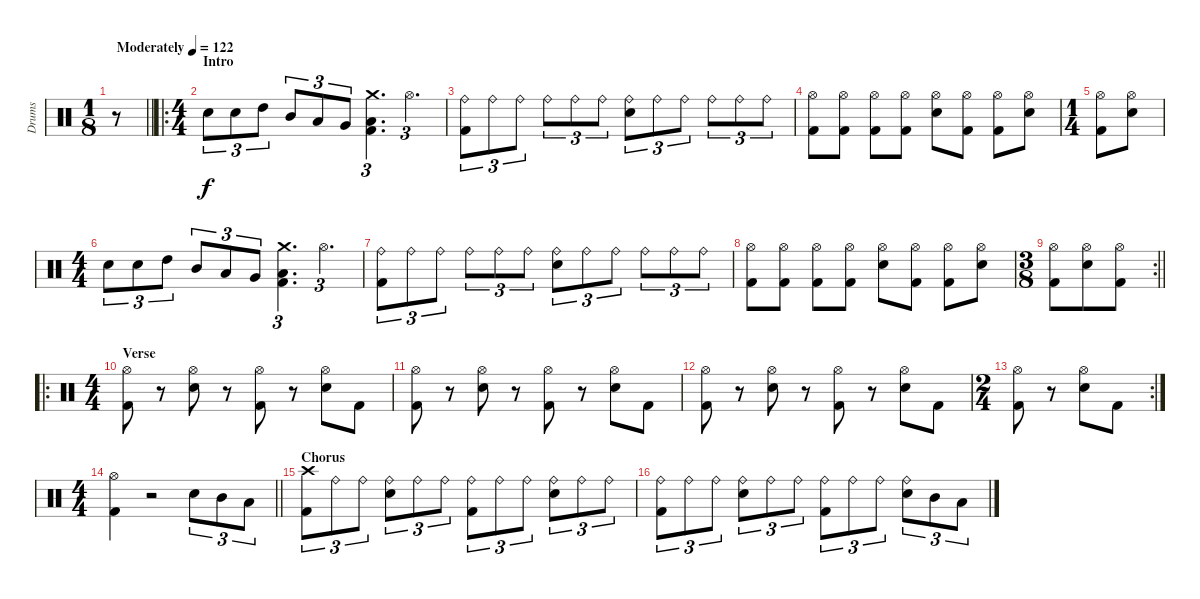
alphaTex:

\track ("Drums" "Drums") {instrument percussion}
\staff
\articulation defaults
\ts (1 8)
\tempo (122 "Moderately")
\clef neutral
\barLineRight lightlight
\ks c
r.8{dy f} |
\ro
\ts (4 4)
\section ("" "Intro")
"Electric Snare (hit)".8{tu (3 2)} "Electric Snare (hit)".8{tu (3 2)} "High Tom (hit)".8{tu (3 2)} "Mid Tom (hit)".8{tu (3 2)} "Low Tom (hit)".8{tu (3 2)} "Very Low Tom (hit)".8{tu (3 2)} ("Crash medium (hit)" "Low Floor Tom (hit)" "Kick (hit) 2").4{d tu (3 2)} "Hi-Hat (open)".4{d tu (3 2)} |
("Ride (bell)" "Kick (hit) 2").8{tu (3 2)} "Ride (bell)".8{tu (3 2)} "Ride (bell)".8{tu (3 2)} "Ride (bell)".8{tu (3 2)} "Ride (bell)".8{tu (3 2)} "Ride (bell)".8{tu (3 2)} ("Ride (bell)" "Electric Snare (hit)").8{tu (3 2)} "Ride (bell)".8{tu (3 2)} "Ride (bell)".8{tu (3 2)} "Ride (bell)".8{tu (3 2)} "Ride (bell)".8{tu (3 2)} "Ride (bell)".8{tu (3 2)} |
("Hi-Hat (open)" "Kick (hit) 2").8 ("Hi-Hat (open)" "Kick (hit) 2").8 ("Hi-Hat (open)" "Kick (hit) 2").8 ("Hi-Hat (open)" "Kick (hit) 2").8 ("Hi-Hat (open)" "Electric Snare (hit)").8 ("Hi-Hat (open)" "Kick (hit) 2").8 ("Hi-Hat (open)" "Kick (hit) 2").8 ("Hi-Hat (open)" "Electric Snare (hit)").8 |
\ts (1 4)
("Hi-Hat (open)" "Kick (hit) 2").8 ("Hi-Hat (open)" "Electric Snare (hit)").8 |
\ts (4 4)
"Electric Snare (hit)".8{tu (3 2)} "Electric Snare (hit)".8{tu (3 2)} "High Tom (hit)".8{tu (3 2)} "Mid Tom (hit)".8{tu (3 2)} "Low Tom (hit)".8{tu (3 2)} "Very Low Tom (hit)".8{tu (3 2)} ("Crash medium (hit)" "Low Floor Tom (hit)" "Kick (hit) 2").4{d tu (3 2)} "Hi-Hat (open)".4{d tu (3 2)} |
("Ride (bell)" "Kick (hit) 2").8{tu (3 2)} "Ride (bell)".8{tu (3 2)} "Ride (bell)".8{tu (3 2)} "Ride (bell)".8{tu (3 2)} "Ride (bell)".8{tu (3 2)} "Ride (bell)".8{tu (3 2)} ("Ride (bell)" "Electric Snare (hit)").8{tu (3 2)} "Ride (bell)".8{tu (3 2)} "Ride (bell)".8{tu (3 2)} "Ride (bell)".8{tu (3 2)} "Ride (bell)".8{tu (3 2)} "Ride (bell)".8{tu (3 2)} |
("Hi-Hat (open)" "Kick (hit) 2").8 ("Hi-Hat (open)" "Kick (hit) 2").8 ("Hi-Hat (open)" "Kick (hit) 2").8 ("Hi-Hat (open)" "Kick (hit) 2").8 ("Hi-Hat (open)" "Electric Snare (hit)").8 ("Hi-Hat (open)" "Kick (hit) 2").8 ("Hi-Hat (open)" "Kick (hit) 2").8 ("Hi-Hat (open)" "Electric Snare (hit)").8 |
\rc 2
\ts (3 8)
\barLineRight lightlight
("Hi-Hat (open)" "Kick (hit) 2").8 ("Hi-Hat (open)" "Electric Snare (hit)").8 ("Hi-Hat (open)" "Kick (hit) 2").8 |
\ro
\ts (4 4)
\section ("" "Verse")
("Hi-Hat (open)" "Kick (hit) 2").8 r.8 ("Hi-Hat (open)" "Electric Snare (hit)").8 r.8 ("Hi-Hat (open)" "Kick (hit) 2").8 r.8 ("Hi-Hat (open)" "Electric Snare (hit)").8 "Kick (hit) 2".8 |
("Hi-Hat (open)" "Kick (hit) 2").8 r.8 ("Hi-Hat (open)" "Electric Snare (hit)").8 r.8 ("Hi-Hat (open)" "Kick (hit) 2").8 r.8 ("Hi-Hat (open)" "Electric Snare (hit)").8 "Kick (hit) 2".8 |
("Hi-Hat (open)" "Kick (hit) 2").8 r.8 ("Hi-Hat (open)" "Electric Snare (hit)").8 r.8 ("Hi-Hat (open)" "Kick (hit) 2").8 r.8 ("Hi-Hat (open)" "Electric Snare (hit)").8 "Kick (hit) 2".8 |
\rc 2
\ts (2 4)
("Hi-Hat (open)" "Kick (hit) 2").8 r.8 ("Hi-Hat (open)" "Electric Snare (hit)").8 "Kick (hit) 2".8 |
\ts (4 4)
\barLineRight lightlight
("Hi-Hat (open)" "Kick (hit) 2").4 r.2 "Electric Snare (hit)".8{tu (3 2)} "Mid Tom (hit)".8{tu (3 2)} "Low Tom (hit)".8{tu (3 2)} |
\section ("" "Chorus")
("Crash high (hit)" "Kick (hit) 2").8{tu (3 2)} "Ride (bell)".8{tu (3 2)} "Ride (bell)".8{tu (3 2)} ("Ride (bell)" "Electric Snare (hit)").8{tu (3 2)} "Ride (bell)".8{tu (3 2)} "Ride (bell)".8{tu (3 2)} ("Ride (bell)" "Kick (hit) 2").8{tu (3 2)} "Ride (bell)".8{tu (3 2)} "Ride (bell)".8{tu (3 2)} ("Ride (bell)" "Electric Snare (hit)").8{tu (3 2)} "Ride (bell)".8{tu (3 2)} "Ride (bell)".8{tu (3 2)} |
("Ride (bell)" "Kick (hit) 2").8{tu (3 2)} "Ride (bell)".8{tu (3 2)} "Ride (bell)".8{tu (3 2)} ("Ride (bell)" "Electric Snare (hit)").8{tu (3 2)} "Ride (bell)".8{tu (3 2)} "Ride (bell)".8{tu (3 2)} ("Ride (bell)" "Kick (hit) 2").8{tu (3 2)} "Ride (bell)".8{tu (3 2)} "Ride (bell)".8{tu (3 2)} ("Ride (bell)" "Electric Snare (hit)").8{tu (3 2)} "Mid Tom (hit)".8{tu (3 2)} "Low Tom (hit)".8{tu (3 2)}
